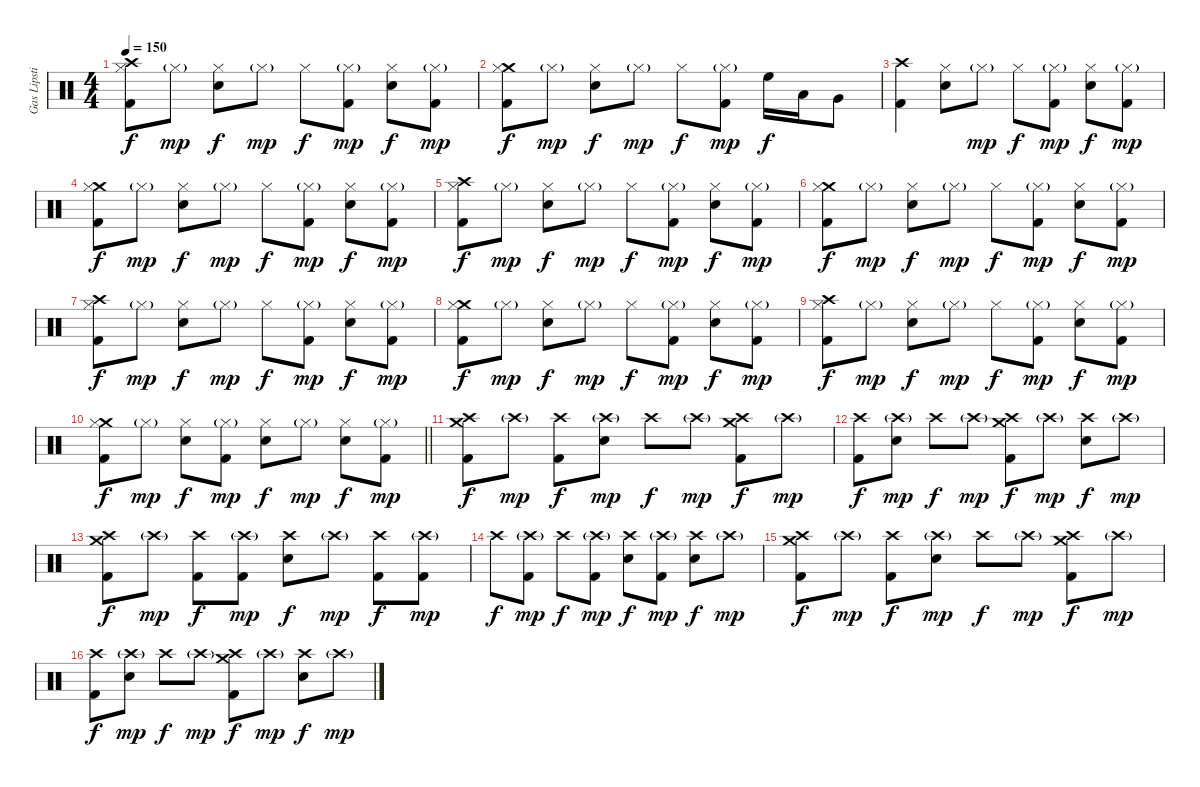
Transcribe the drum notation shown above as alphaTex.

\track ("Gas Lipstick" "Gas Lipsti") {instrument percussion}
\staff {score}
\articulation defaults
\ts (4 4)
\tempo 150
\clef neutral
\ks c
("Crash high (hit)" "Hi-Hat (closed)" "Kick (hit) 2").8{dy f} "Hi-Hat (closed)"{g}.8{dy mp} ("Hi-Hat (closed)" "Snare (hit) 2").8{dy f} "Hi-Hat (closed)"{g}.8{dy mp} "Hi-Hat (closed)".8{dy f} ("Hi-Hat (closed)"{g} "Kick (hit) 2").8{dy mp} ("Hi-Hat (closed)" "Snare (hit) 2").8{dy f} ("Hi-Hat (closed)"{g} "Kick (hit) 2").8{dy mp} |
("Crash medium (hit)" "Hi-Hat (closed)" "Kick (hit) 2").8{dy f} "Hi-Hat (closed)"{g}.8{dy mp} ("Hi-Hat (closed)" "Snare (hit) 2").8{dy f} "Hi-Hat (closed)"{g}.8{dy mp} "Hi-Hat (closed)".8{dy f} ("Hi-Hat (closed)"{g} "Kick (hit) 2").8{dy mp} "High Floor Tom (hit)".16{dy f} "Low Tom (hit)".16 "Very Low Tom (hit)".8 |
("Crash high (hit)" "Kick (hit) 2").4 ("Hi-Hat (closed)" "Snare (hit) 2").8 "Hi-Hat (closed)"{g}.8{dy mp} "Hi-Hat (closed)".8{dy f} ("Hi-Hat (closed)"{g} "Kick (hit) 2").8{dy mp} ("Hi-Hat (closed)" "Snare (hit) 2").8{dy f} ("Hi-Hat (closed)"{g} "Kick (hit) 2").8{dy mp} |
("Crash medium (hit)" "Hi-Hat (closed)" "Kick (hit) 2").8{dy f} "Hi-Hat (closed)"{g}.8{dy mp} ("Hi-Hat (closed)" "Snare (hit) 2").8{dy f} "Hi-Hat (closed)"{g}.8{dy mp} "Hi-Hat (closed)".8{dy f} ("Hi-Hat (closed)"{g} "Kick (hit) 2").8{dy mp} ("Hi-Hat (closed)" "Snare (hit) 2").8{dy f} ("Hi-Hat (closed)"{g} "Kick (hit) 2").8{dy mp} |
("Crash high (hit)" "Hi-Hat (closed)" "Kick (hit) 2").8{dy f} "Hi-Hat (closed)"{g}.8{dy mp} ("Hi-Hat (closed)" "Snare (hit) 2").8{dy f} "Hi-Hat (closed)"{g}.8{dy mp} "Hi-Hat (closed)".8{dy f} ("Hi-Hat (closed)"{g} "Kick (hit) 2").8{dy mp} ("Hi-Hat (closed)" "Snare (hit) 2").8{dy f} ("Hi-Hat (closed)"{g} "Kick (hit) 2").8{dy mp} |
("Crash medium (hit)" "Hi-Hat (closed)" "Kick (hit) 2").8{dy f} "Hi-Hat (closed)"{g}.8{dy mp} ("Hi-Hat (closed)" "Snare (hit) 2").8{dy f} "Hi-Hat (closed)"{g}.8{dy mp} "Hi-Hat (closed)".8{dy f} ("Hi-Hat (closed)"{g} "Kick (hit) 2").8{dy mp} ("Hi-Hat (closed)" "Snare (hit) 2").8{dy f} ("Hi-Hat (closed)"{g} "Kick (hit) 2").8{dy mp} |
("Crash high (hit)" "Hi-Hat (closed)" "Kick (hit) 2").8{dy f} "Hi-Hat (closed)"{g}.8{dy mp} ("Hi-Hat (closed)" "Snare (hit) 2").8{dy f} "Hi-Hat (closed)"{g}.8{dy mp} "Hi-Hat (closed)".8{dy f} ("Hi-Hat (closed)"{g} "Kick (hit) 2").8{dy mp} ("Hi-Hat (closed)" "Snare (hit) 2").8{dy f} ("Hi-Hat (closed)"{g} "Kick (hit) 2").8{dy mp} |
("Crash medium (hit)" "Hi-Hat (closed)" "Kick (hit) 2").8{dy f} "Hi-Hat (closed)"{g}.8{dy mp} ("Hi-Hat (closed)" "Snare (hit) 2").8{dy f} "Hi-Hat (closed)"{g}.8{dy mp} "Hi-Hat (closed)".8{dy f} ("Hi-Hat (closed)"{g} "Kick (hit) 2").8{dy mp} ("Hi-Hat (closed)" "Snare (hit) 2").8{dy f} ("Hi-Hat (closed)"{g} "Kick (hit) 2").8{dy mp} |
("Crash high (hit)" "Hi-Hat (closed)" "Kick (hit) 2").8{dy f} "Hi-Hat (closed)"{g}.8{dy mp} ("Hi-Hat (closed)" "Snare (hit) 2").8{dy f} "Hi-Hat (closed)"{g}.8{dy mp} "Hi-Hat (closed)".8{dy f} ("Hi-Hat (closed)"{g} "Kick (hit) 2").8{dy mp} ("Hi-Hat (closed)" "Snare (hit) 2").8{dy f} ("Hi-Hat (closed)"{g} "Kick (hit) 2").8{dy mp} |
\barLineRight lightlight
("Crash medium (hit)" "Hi-Hat (closed)" "Kick (hit) 2").8{dy f} "Hi-Hat (closed)"{g}.8{dy mp} ("Hi-Hat (closed)" "Snare (hit) 2").8{dy f} ("Hi-Hat (closed)"{g} "Kick (hit) 2").8{dy mp} ("Hi-Hat (closed)" "Snare (hit) 2").8{dy f} "Hi-Hat (closed)"{g}.8{dy mp} ("Hi-Hat (closed)" "Snare (hit) 2").8{dy f} ("Hi-Hat (closed)"{g} "Kick (hit) 2").8{dy mp} |
("Crash medium (hit)" "Crash high (hit)" "Kick (hit) 2").8{dy f} "Crash high (hit)"{g}.8{dy mp} ("Crash high (hit)" "Kick (hit) 2").8{dy f} ("Crash high (hit)"{g} "Snare (hit) 2").8{dy mp} "Crash high (hit)".8{dy f} "Crash high (hit)"{g}.8{dy mp} ("Crash medium (hit)" "Crash high (hit)" "Kick (hit) 2").8{dy f} "Crash high (hit)"{g}.8{dy mp} |
("Crash high (hit)" "Kick (hit) 2").8{dy f} ("Crash high (hit)"{g} "Snare (hit) 2").8{dy mp} "Crash high (hit)".8{dy f} "Crash high (hit)"{g}.8{dy mp} ("Crash medium (hit)" "Crash high (hit)" "Kick (hit) 2").8{dy f} "Crash high (hit)"{g}.8{dy mp} ("Crash high (hit)" "Snare (hit) 2").8{dy f} "Crash high (hit)"{g}.8{dy mp} |
("Crash medium (hit)" "Crash high (hit)" "Kick (hit) 2").8{dy f} "Crash high (hit)"{g}.8{dy mp} ("Crash high (hit)" "Kick (hit) 2").8{dy f} ("Crash high (hit)"{g} "Kick (hit) 2").8{dy mp} ("Crash high (hit)" "Snare (hit) 2").8{dy f} "Crash high (hit)"{g}.8{dy mp} ("Crash high (hit)" "Kick (hit) 2").8{dy f} ("Crash high (hit)"{g} "Kick (hit) 2").8{dy mp} |
"Crash high (hit)".8{dy f} ("Crash high (hit)"{g} "Kick (hit) 2").8{dy mp} "Crash high (hit)".8{dy f} ("Crash high (hit)"{g} "Kick (hit) 2").8{dy mp} ("Crash high (hit)" "Snare (hit) 2").8{dy f} ("Crash high (hit)"{g} "Kick (hit) 2").8{dy mp} ("Crash high (hit)" "Snare (hit) 2").8{dy f} "Crash high (hit)"{g}.8{dy mp} |
("Crash medium (hit)" "Crash high (hit)" "Kick (hit) 2").8{dy f} "Crash high (hit)"{g}.8{dy mp} ("Crash high (hit)" "Kick (hit) 2").8{dy f} ("Crash high (hit)"{g} "Snare (hit) 2").8{dy mp} "Crash high (hit)".8{dy f} "Crash high (hit)"{g}.8{dy mp} ("Crash medium (hit)" "Crash high (hit)" "Kick (hit) 2").8{dy f} "Crash high (hit)"{g}.8{dy mp} |
("Crash high (hit)" "Kick (hit) 2").8{dy f} ("Crash high (hit)"{g} "Snare (hit) 2").8{dy mp} "Crash high (hit)".8{dy f} "Crash high (hit)"{g}.8{dy mp} ("Crash medium (hit)" "Crash high (hit)" "Kick (hit) 2").8{dy f} "Crash high (hit)"{g}.8{dy mp} ("Crash high (hit)" "Snare (hit) 2").8{dy f} "Crash high (hit)"{g}.8{dy mp}
